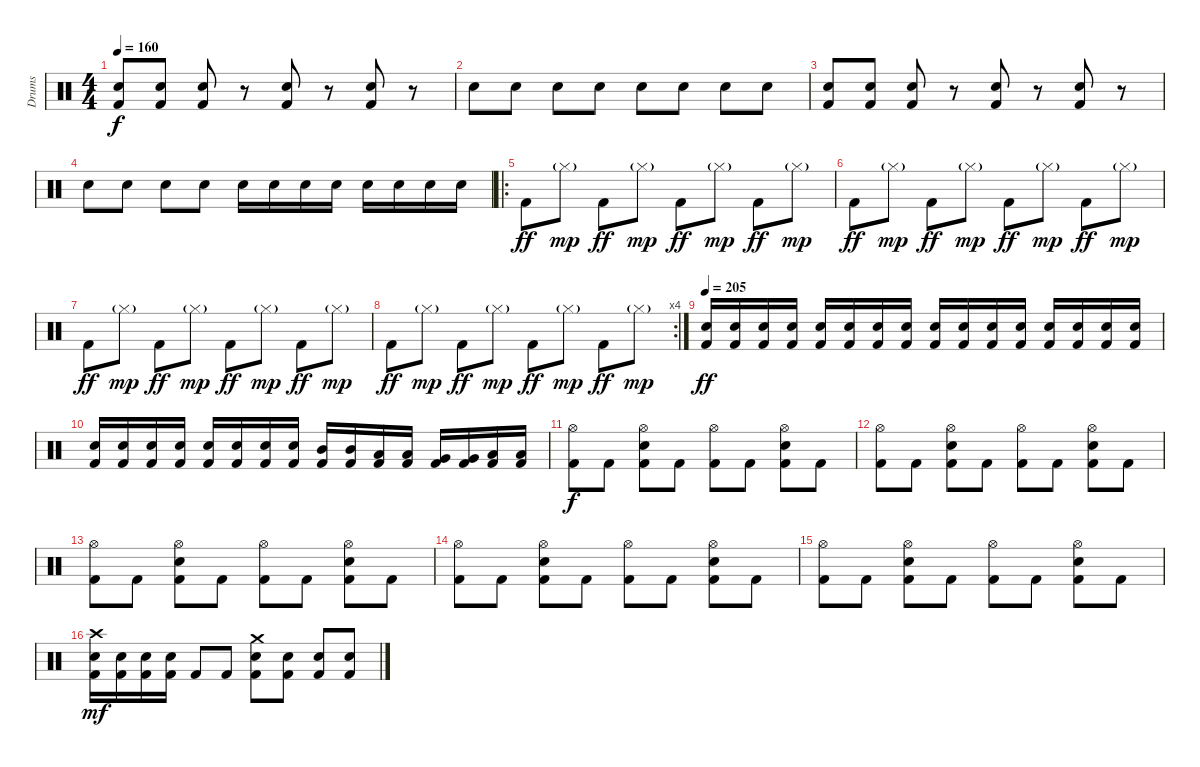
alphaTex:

\track ("Drums" "Drums") {instrument percussion}
\staff {score}
\articulation defaults
\ts (4 4)
\tempo 160
\clef neutral
\ks c
("Electric Snare (hit)" "Kick (hit) 2").8{dy f} ("Electric Snare (hit)" "Kick (hit) 2").8 ("Electric Snare (hit)" "Kick (hit) 2").8 r.8 ("Electric Snare (hit)" "Kick (hit) 2").8 r.8 ("Electric Snare (hit)" "Kick (hit) 2").8 r.8 |
"Electric Snare (hit)".8 "Electric Snare (hit)".8 "Electric Snare (hit)".8 "Electric Snare (hit)".8 "Electric Snare (hit)".8 "Electric Snare (hit)".8 "Electric Snare (hit)".8 "Electric Snare (hit)".8 |
("Electric Snare (hit)" "Kick (hit) 2").8 ("Electric Snare (hit)" "Kick (hit) 2").8 ("Electric Snare (hit)" "Kick (hit) 2").8 r.8 ("Electric Snare (hit)" "Kick (hit) 2").8 r.8 ("Electric Snare (hit)" "Kick (hit) 2").8 r.8 |
"Electric Snare (hit)".8{volume 5} "Electric Snare (hit)".8{volume 6} "Electric Snare (hit)".8{volume 7} "Electric Snare (hit)".8{volume 8} "Electric Snare (hit)".16{volume 9} "Electric Snare (hit)".16 "Electric Snare (hit)".16 "Electric Snare (hit)".16 "Electric Snare (hit)".16 "Electric Snare (hit)".16 "Electric Snare (hit)".16 "Electric Snare (hit)".16 |
\ro "Kick (hit) 2".8{dy ff volume 7} "Hi-Hat (closed)"{g}.8{dy mp} "Kick (hit) 2".8{dy ff} "Hi-Hat (closed)"{g}.8{dy mp} "Kick (hit) 2".8{dy ff} "Hi-Hat (closed)"{g}.8{dy mp} "Kick (hit) 2".8{dy ff} "Hi-Hat (closed)"{g}.8{dy mp}
|
"Kick (hit) 2".8{dy ff} "Hi-Hat (closed)"{g}.8{dy mp} "Kick (hit) 2".8{dy ff} "Hi-Hat (closed)"{g}.8{dy mp} "Kick (hit) 2".8{dy ff} "Hi-Hat (closed)"{g}.8{dy mp} "Kick (hit) 2".8{dy ff} "Hi-Hat (closed)"{g}.8{dy mp} |
"Kick (hit) 2".8{dy ff} "Hi-Hat (closed)"{g}.8{dy mp} "Kick (hit) 2".8{dy ff} "Hi-Hat (closed)"{g}.8{dy mp} "Kick (hit) 2".8{dy ff} "Hi-Hat (closed)"{g}.8{dy mp} "Kick (hit) 2".8{dy ff} "Hi-Hat (closed)"{g}.8{dy mp} |
\rc 4 "Kick (hit) 2".8{dy ff} "Hi-Hat (closed)"{g}.8{dy mp} "Kick (hit) 2".8{dy ff} "Hi-Hat (closed)"{g}.8{dy mp} "Kick (hit) 2".8{dy ff} "Hi-Hat (closed)"{g}.8{dy mp} "Kick (hit) 2".8{dy ff} "Hi-Hat (closed)"{g}.8{dy mp}
|
\tempo 205
("Snare (hit) 2" "Kick (hit) 2").16{dy ff volume 13} ("Snare (hit) 2" "Kick (hit) 2").16 ("Snare (hit) 2" "Kick (hit) 2").16 ("Snare (hit) 2" "Kick (hit) 2").16 ("Snare (hit) 2" "Kick (hit) 2").16 ("Snare (hit) 2" "Kick (hit) 2").16 ("Snare (hit) 2" "Kick (hit) 2").16 ("Snare (hit) 2" "Kick (hit) 2").16 ("Snare (hit) 2" "Kick (hit) 2").16 ("Snare (hit) 2" "Kick (hit) 2").16 ("Snare (hit) 2" "Kick (hit) 2").16 ("Snare (hit) 2" "Kick (hit) 2").16 ("Snare (hit) 2" "Kick (hit) 2").16 ("Snare (hit) 2" "Kick (hit) 2").16 ("Snare (hit) 2" "Kick (hit) 2").16 ("Snare (hit) 2" "Kick (hit) 2").16 |
("Snare (hit) 2" "Kick (hit) 2").16 ("Snare (hit) 2" "Kick (hit) 2").16 ("Snare (hit) 2" "Kick (hit) 2").16 ("Snare (hit) 2" "Kick (hit) 2").16 ("Snare (hit) 2" "Kick (hit) 2").16 ("Snare (hit) 2" "Kick (hit) 2").16 ("Snare (hit) 2" "Kick (hit) 2").16 ("Snare (hit) 2" "Kick (hit) 2").16 ("Mid Tom (hit)" "Kick (hit) 2").16 ("Mid Tom (hit)" "Kick (hit) 2").16 ("Low Tom (hit)" "Kick (hit) 2").16 ("Low Tom (hit)" "Kick (hit) 2").16 ("Very Low Tom (hit)" "Kick (hit) 2").16 ("Very Low Tom (hit)" "Kick (hit) 2").16 ("Low Floor Tom (hit)" "Kick (hit) 2").16 ("Low Floor Tom (hit)" "Kick (hit) 2").16 |
("Hi-Hat (open)" "Kick (hit) 2").8{dy f} "Kick (hit) 2".8 ("Hi-Hat (open)" "Electric Snare (hit)" "Kick (hit) 2").8 "Kick (hit) 2".8 ("Hi-Hat (open)" "Kick (hit) 2").8 "Kick (hit) 2".8 ("Hi-Hat (open)" "Electric Snare (hit)" "Kick (hit) 2").8 "Kick (hit) 2".8 |
("Hi-Hat (open)" "Kick (hit) 2").8 "Kick (hit) 2".8 ("Hi-Hat (open)" "Electric Snare (hit)" "Kick (hit) 2").8 "Kick (hit) 2".8 ("Hi-Hat (open)" "Kick (hit) 2").8 "Kick (hit) 2".8 ("Hi-Hat (open)" "Electric Snare (hit)" "Kick (hit) 2").8 "Kick (hit) 2".8 |
("Hi-Hat (open)" "Kick (hit) 2").8 "Kick (hit) 2".8 ("Hi-Hat (open)" "Electric Snare (hit)" "Kick (hit) 2").8 "Kick (hit) 2".8 ("Hi-Hat (open)" "Kick (hit) 2").8 "Kick (hit) 2".8 ("Hi-Hat (open)" "Electric Snare (hit)" "Kick (hit) 2").8 "Kick (hit) 2".8 |
("Hi-Hat (open)" "Kick (hit) 2").8 "Kick (hit) 2".8 ("Hi-Hat (open)" "Electric Snare (hit)" "Kick (hit) 2").8 "Kick (hit) 2".8 ("Hi-Hat (open)" "Kick (hit) 2").8 "Kick (hit) 2".8 ("Hi-Hat (open)" "Electric Snare (hit)" "Kick (hit) 2").8 "Kick (hit) 2".8 |
("Hi-Hat (open)" "Kick (hit) 2").8 "Kick (hit) 2".8 ("Hi-Hat (open)" "Electric Snare (hit)" "Kick (hit) 2").8 "Kick (hit) 2".8 ("Hi-Hat (open)" "Kick (hit) 2").8 "Kick (hit) 2".8 ("Hi-Hat (open)" "Electric Snare (hit)" "Kick (hit) 2").8 "Kick (hit) 2".8 |
("Crash high (hit)" "Electric Snare (hit)" "Kick (hit) 2").16{dy mf} ("Electric Snare (hit)" "Kick (hit) 2").16 ("Electric Snare (hit)" "Kick (hit) 2").16 ("Electric Snare (hit)" "Kick (hit) 2").16 "Kick (hit) 2".8 "Kick (hit) 2".8 ("Crash medium (hit)" "Electric Snare (hit)" "Kick (hit) 2").8 ("Electric Snare (hit)" "Kick (hit) 2").8 ("Electric Snare (hit)" "Kick (hit) 2").8 ("Electric Snare (hit)" "Kick (hit) 2").8
